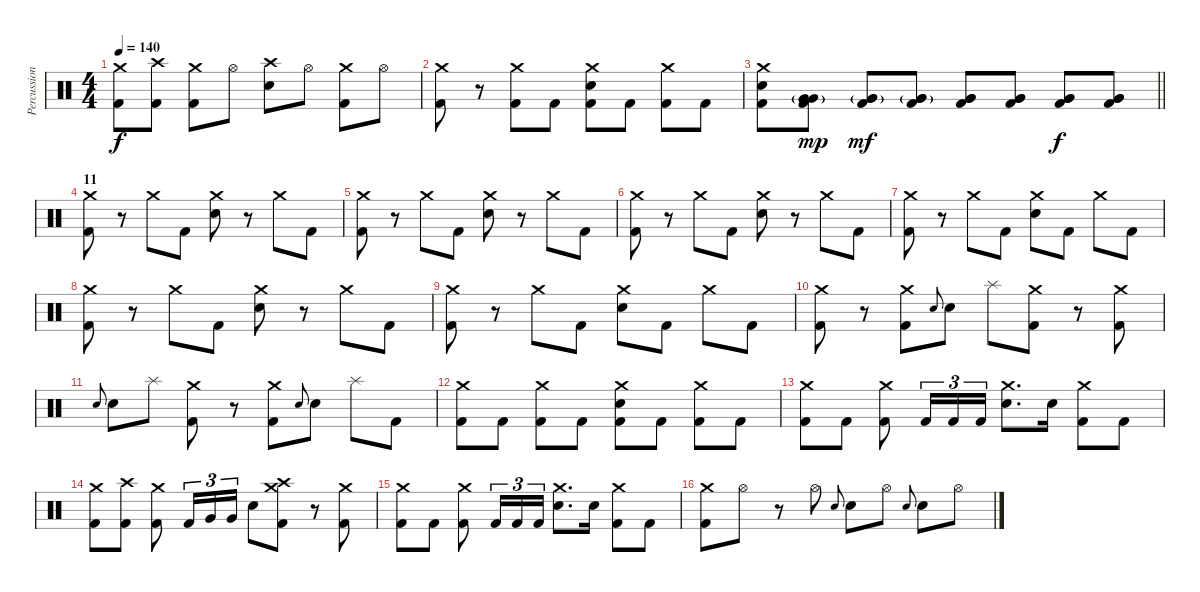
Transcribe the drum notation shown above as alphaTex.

\track ("Percussion" "Percussion") {instrument percussion}
\staff {score}
\articulation defaults
\ts (4 4)
\tempo 140
\clef neutral
\ks c
("Crash medium (hit)" "Kick (hit) 2").8{dy f} ("Crash high (hit)" "Kick (hit) 2").8 ("Crash medium (hit)" "Kick (hit) 2").8 "Hi-Hat (open)".8 ("Crash high (hit)" "Snare (hit) 2").8 "Hi-Hat (open)".8 ("Crash medium (hit)" "Kick (hit) 2").8 "Hi-Hat (open)".8 |
("Crash medium (hit)" "Kick (hit) 2").8 r.8 ("Crash medium (hit)" "Kick (hit) 2").8 "Kick (hit) 2".8 ("Crash medium (hit)" "Snare (hit) 2" "Kick (hit) 2").8 "Kick (hit) 2".8 ("Crash medium (hit)" "Kick (hit) 2").8 "Kick (hit) 2".8 |
\barLineRight lightlight
("Crash medium (hit)" "Snare (hit) 2" "Kick (hit) 2").8 ("Very Low Tom (hit)"{g} "Very Low Tom (hit)"{g} "Kick (hit) 2").8{bu 60 dy mp} ("Very Low Tom (hit)"{g} "Very Low Tom (hit)"{g} "Kick (hit) 2").8{bu 60 dy mf} ("Very Low Tom (hit)"{g} "Very Low Tom (hit)"{g} "Kick (hit) 2").8{bu 60} ("Very Low Tom (hit)" "Very Low Tom (hit)" "Kick (hit) 2").8{bu 60} ("Very Low Tom (hit)" "Very Low Tom (hit)" "Kick (hit) 2").8{bu 60} ("Very Low Tom (hit)" "Very Low Tom (hit)" "Kick (hit) 2").8{bu 60 dy f} ("Very Low Tom (hit)" "Very Low Tom (hit)" "Kick (hit) 2").8{bu 60} |
\section ("" "11")
("Crash medium (hit)" "Kick (hit) 2").8 r.8 "Crash medium (hit)".8 "Kick (hit) 2".8 ("Crash medium (hit)" "Snare (hit) 2").8 r.8 "Crash medium (hit)".8 "Kick (hit) 2".8 |
("Crash medium (hit)" "Kick (hit) 2").8 r.8 "Crash medium (hit)".8 "Kick (hit) 2".8 ("Crash medium (hit)" "Snare (hit) 2").8 r.8 "Crash medium (hit)".8 "Kick (hit) 2".8 |
("Crash medium (hit)" "Kick (hit) 2").8 r.8 "Crash medium (hit)".8 "Kick (hit) 2".8 ("Crash medium (hit)" "Snare (hit) 2").8 r.8 "Crash medium (hit)".8 "Kick (hit) 2".8 |
("Crash medium (hit)" "Kick (hit) 2").8 r.8 "Crash medium (hit)".8 "Kick (hit) 2".8 ("Crash medium (hit)" "Snare (hit) 2").8 "Kick (hit) 2".8 "Crash medium (hit)".8 "Kick (hit) 2".8 |
("Crash medium (hit)" "Kick (hit) 2").8 r.8 "Crash medium (hit)".8 "Kick (hit) 2".8 ("Crash medium (hit)" "Snare (hit) 2").8 r.8 "Crash medium (hit)".8 "Kick (hit) 2".8 |
("Crash medium (hit)" "Kick (hit) 2").8 r.8 "Crash medium (hit)".8 "Kick (hit) 2".8 ("Crash medium (hit)" "Snare (hit) 2").8 "Kick (hit) 2".8 "Crash medium (hit)".8 "Kick (hit) 2".8 |
("Crash medium (hit)" "Kick (hit) 2").8 r.8 ("Crash medium (hit)" "Kick (hit) 2").8 "Snare (hit) 2".8{gr onbeat} "Snare (hit) 2".8 "Splash (hit)".8 ("Crash medium (hit)" "Kick (hit) 2").8 r.8 ("Crash medium (hit)" "Kick (hit) 2").8 |
"Snare (hit) 2".8{gr onbeat} "Snare (hit) 2".8 "Splash (hit)".8 ("Crash medium (hit)" "Kick (hit) 2").8 r.8 ("Crash medium (hit)" "Kick (hit) 2").8 "Snare (hit) 2".8{gr onbeat} "Snare (hit) 2".8 "Splash (hit)".8 "Kick (hit) 2".8 |
("Crash medium (hit)" "Kick (hit) 2").8 "Kick (hit) 2".8 ("Crash medium (hit)" "Kick (hit) 2").8 "Kick (hit) 2".8 ("Crash medium (hit)" "Snare (hit) 2" "Kick (hit) 2").8 "Kick (hit) 2".8 ("Crash medium (hit)" "Kick (hit) 2").8 "Kick (hit) 2".8 |
("Crash medium (hit)" "Kick (hit) 2").8 "Kick (hit) 2".8 ("Crash medium (hit)" "Kick (hit) 2").8 "Kick (hit) 2".16{tu (3 2)} "Kick (hit) 2".16{tu (3 2)} "Kick (hit) 2".16{tu (3 2)} ("Crash medium (hit)" "Snare (hit) 2").8{d} "Snare (hit) 2".16 ("Crash medium (hit)" "Kick (hit) 2").8 "Kick (hit) 2".8 |
("Crash medium (hit)" "Kick (hit) 2").8 ("Crash high (hit)" "Kick (hit) 2").8 ("Crash medium (hit)" "Kick (hit) 2").8 "Kick (hit) 2".16{tu (3 2)} "Very Low Tom (hit)".16{tu (3 2)} "Very Low Tom (hit)".16{tu (3 2)} "Snare (hit) 2".8 ("Crash medium (hit)" "Crash high (hit)" "Kick (hit) 2").8 r.8 ("Crash medium (hit)" "Kick (hit) 2").8 |
("Crash medium (hit)" "Kick (hit) 2").8 "Kick (hit) 2".8 ("Crash medium (hit)" "Kick (hit) 2").8 "Kick (hit) 2".16{tu (3 2)} "Kick (hit) 2".16{tu (3 2)} "Kick (hit) 2".16{tu (3 2)} ("Crash medium (hit)" "Snare (hit) 2").8{d} "Snare (hit) 2".16 ("Crash medium (hit)" "Kick (hit) 2").8 "Kick (hit) 2".8 |
("Crash medium (hit)" "Kick (hit) 2").8 "Hi-Hat (open)".8 r.8 "Hi-Hat (open)".8 "Snare (hit) 2".8{gr onbeat} "Snare (hit) 2".8 "Hi-Hat (open)".8 "Snare (hit) 2".8{gr onbeat} "Snare (hit) 2".8 "Hi-Hat (open)".8
